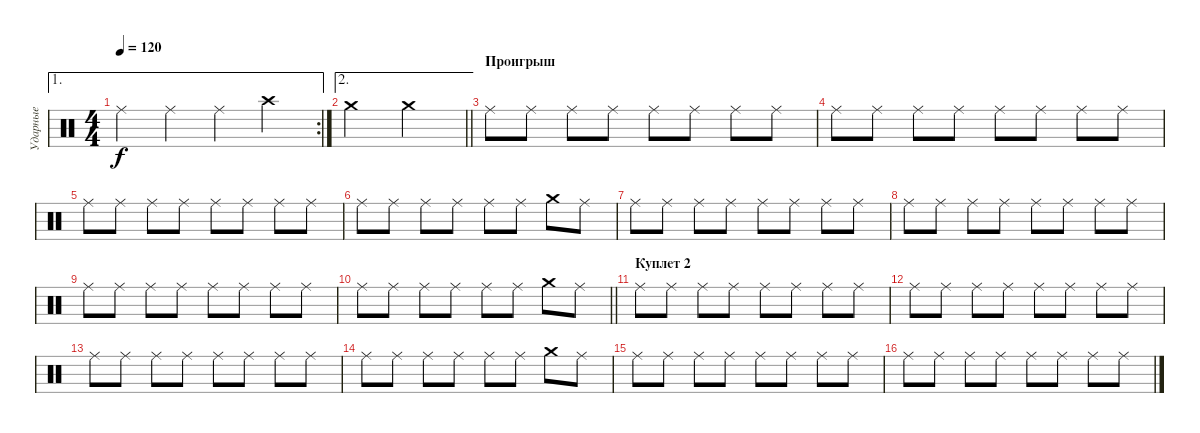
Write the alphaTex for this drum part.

\track ("Ударные" "Ударные") {instrument percussion}
\staff {score}
\articulation defaults
\ae 1
\rc 2
\ts (4 4)
\tempo 120
\clef neutral
\ks c "Ride (middle)".4{dy f} "Ride (middle)".4 "Ride (middle)".4 "Crash high (hit)".4
|
\ae 2
\barLineRight lightlight "Crash medium (hit)".2 "Crash medium (hit)".2
|
\section ("" "Проигрыш")
"Ride (middle)".8 "Ride (middle)".8 "Ride (middle)".8 "Ride (middle)".8 "Ride (middle)".8 "Ride (middle)".8 "Ride (middle)".8 "Ride (middle)".8 |
"Ride (middle)".8 "Ride (middle)".8 "Ride (middle)".8 "Ride (middle)".8 "Ride (middle)".8 "Ride (middle)".8 "Ride (middle)".8 "Ride (middle)".8 |
"Ride (middle)".8 "Ride (middle)".8 "Ride (middle)".8 "Ride (middle)".8 "Ride (middle)".8 "Ride (middle)".8 "Ride (middle)".8 "Ride (middle)".8 |
"Ride (middle)".8 "Ride (middle)".8 "Ride (middle)".8 "Ride (middle)".8 "Ride (middle)".8 "Ride (middle)".8 "Crash medium (hit)".8 "Ride (middle)".8 |
"Ride (middle)".8 "Ride (middle)".8 "Ride (middle)".8 "Ride (middle)".8 "Ride (middle)".8 "Ride (middle)".8 "Ride (middle)".8 "Ride (middle)".8 |
"Ride (middle)".8 "Ride (middle)".8 "Ride (middle)".8 "Ride (middle)".8 "Ride (middle)".8 "Ride (middle)".8 "Ride (middle)".8 "Ride (middle)".8 |
"Ride (middle)".8 "Ride (middle)".8 "Ride (middle)".8 "Ride (middle)".8 "Ride (middle)".8 "Ride (middle)".8 "Ride (middle)".8 "Ride (middle)".8 |
\barLineRight lightlight "Ride (middle)".8 "Ride (middle)".8 "Ride (middle)".8 "Ride (middle)".8 "Ride (middle)".8 "Ride (middle)".8 "Crash medium (hit)".8 "Ride (middle)".8
|
\section ("" "Куплет 2")
"Ride (middle)".8 "Ride (middle)".8 "Ride (middle)".8 "Ride (middle)".8 "Ride (middle)".8 "Ride (middle)".8 "Ride (middle)".8 "Ride (middle)".8 |
"Ride (middle)".8 "Ride (middle)".8 "Ride (middle)".8 "Ride (middle)".8 "Ride (middle)".8 "Ride (middle)".8 "Ride (middle)".8 "Ride (middle)".8 |
"Ride (middle)".8 "Ride (middle)".8 "Ride (middle)".8 "Ride (middle)".8 "Ride (middle)".8 "Ride (middle)".8 "Ride (middle)".8 "Ride (middle)".8 |
"Ride (middle)".8 "Ride (middle)".8 "Ride (middle)".8 "Ride (middle)".8 "Ride (middle)".8 "Ride (middle)".8 "Crash medium (hit)".8 "Ride (middle)".8 |
"Ride (middle)".8 "Ride (middle)".8 "Ride (middle)".8 "Ride (middle)".8 "Ride (middle)".8 "Ride (middle)".8 "Ride (middle)".8 "Ride (middle)".8 |
"Ride (middle)".8 "Ride (middle)".8 "Ride (middle)".8 "Ride (middle)".8 "Ride (middle)".8 "Ride (middle)".8 "Ride (middle)".8 "Ride (middle)".8
